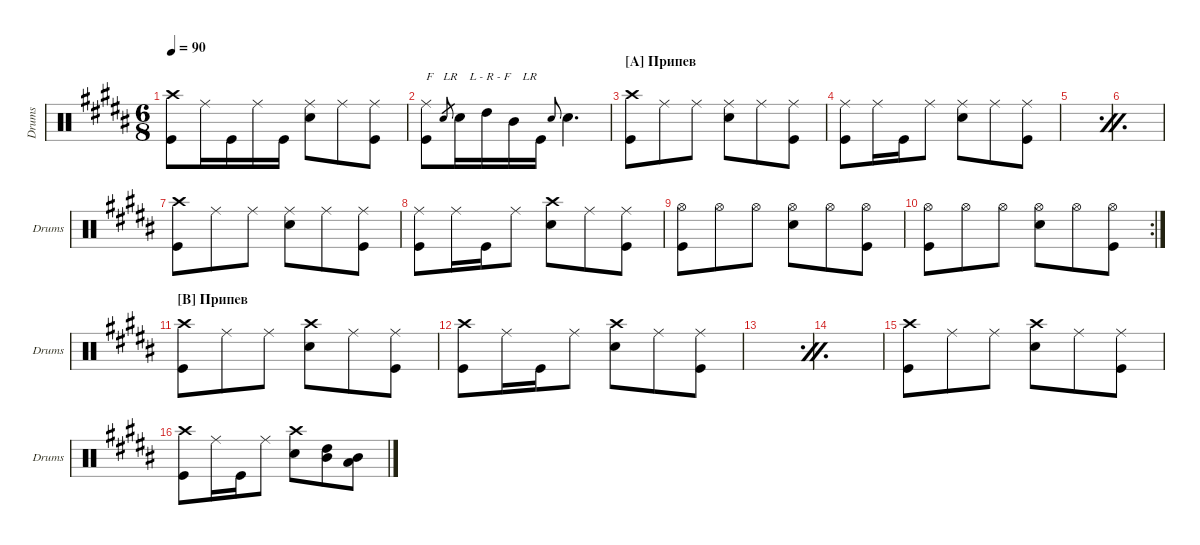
\defaultSystemsLayout 4
\hideDynamics
\bracketExtendMode groupsimilarinstruments
\singleTrackTrackNamePolicy allsystems
\multiTrackTrackNamePolicy allsystems
\otherSystemsTrackNameOrientation horizontal
\track ("Drum" "Drums") {instrument percussion}
\staff {score}
\articulation defaults
\ts (6 8)
\tempo 90
\clef neutral
\ks b
("Kick (hit)" "Crash high (hit)").8{dy mf} "Ride (middle)".16 "Kick (hit)".16 "Ride (middle)".16 "Kick (hit)".16 ("Snare (hit) 2" "Ride (middle)").8 "Ride (middle)".8 ("Kick (hit)" "Ride (middle)").8 |
("Kick (hit)" "Ride (middle)").8{txt "F" dy f} "Snare (hit) 2".8{txt "LR    L - R - F    LR" gr} "Snare (hit) 2".16 "High Tom (hit)".16 "Mid Tom (hit)".16 "Kick (hit)".16 "Snare (hit) 2".8{gr onbeat} "Snare (hit) 2".4{d} |
\section ("A" "Припев")
("Crash high (hit)" "Kick (hit)").8{dy mf} "Ride (middle)".8 "Ride (middle)".8 ("Snare (hit) 2" "Ride (middle)").8 "Ride (middle)".8 ("Ride (middle)" "Kick (hit)").8 |
("Kick (hit)" "Ride (middle)").8 "Ride (middle)".16 "Kick (hit)".16 "Ride (middle)".8 ("Snare (hit) 2" "Ride (middle)").8 "Ride (middle)".8 ("Ride (middle)" "Kick (hit)").8 |
\simile firstofdouble
|
\simile secondofdouble
|
\simile none
("Crash high (hit)" "Kick (hit)").8 "Ride (middle)".8 "Ride (middle)".8 ("Snare (hit) 2" "Ride (middle)").8 "Ride (middle)".8 ("Ride (middle)" "Kick (hit)").8 |
("Kick (hit)" "Ride (middle)").8 "Ride (middle)".16 "Kick (hit)".16 "Ride (middle)".8 ("Snare (hit) 2" "Crash high (hit)").8 "Ride (middle)".8 ("Ride (middle)" "Kick (hit)").8 |
("Kick (hit)" "Hi-Hat (open)").8 "Hi-Hat (open)".8 "Hi-Hat (open)".8 ("Hi-Hat (open)" "Snare (hit) 2").8 "Hi-Hat (open)".8 ("Hi-Hat (open)" "Kick (hit)").8 |
\rc 2
("Kick (hit)" "Hi-Hat (open)").8 "Hi-Hat (open)".8 "Hi-Hat (open)".8 ("Hi-Hat (open)" "Snare (hit) 2").8 "Hi-Hat (open)".8 ("Hi-Hat (open)" "Kick (hit)").8 |
\section ("B" "Припев")
("Crash high (hit)" "Kick (hit)").8 "Ride (middle)".8 "Ride (middle)".8 ("Snare (hit) 2" "Crash high (hit)").8 "Ride (middle)".8 ("Ride (middle)" "Kick (hit)").8 |
("Kick (hit)" "Crash high (hit)").8 "Ride (middle)".16 "Kick (hit)".16 "Ride (middle)".8 ("Snare (hit) 2" "Crash high (hit)").8 "Ride (middle)".8 ("Ride (middle)" "Kick (hit)").8 |
\simile firstofdouble
|
\simile secondofdouble
|
\simile none
("Crash high (hit)" "Kick (hit)").8 "Ride (middle)".8 "Ride (middle)".8 ("Snare (hit) 2" "Crash high (hit)").8 "Ride (middle)".8 ("Ride (middle)" "Kick (hit)").8 |
("Kick (hit)" "Crash high (hit)").8 "Ride (middle)".16 "Kick (hit)".16 "Ride (middle)".8 ("Snare (hit) 2" "Crash high (hit)").8 ("High Tom (hit)" "Mid Tom (hit)").8 ("Mid Tom (hit)" "Low Tom (hit)").8
